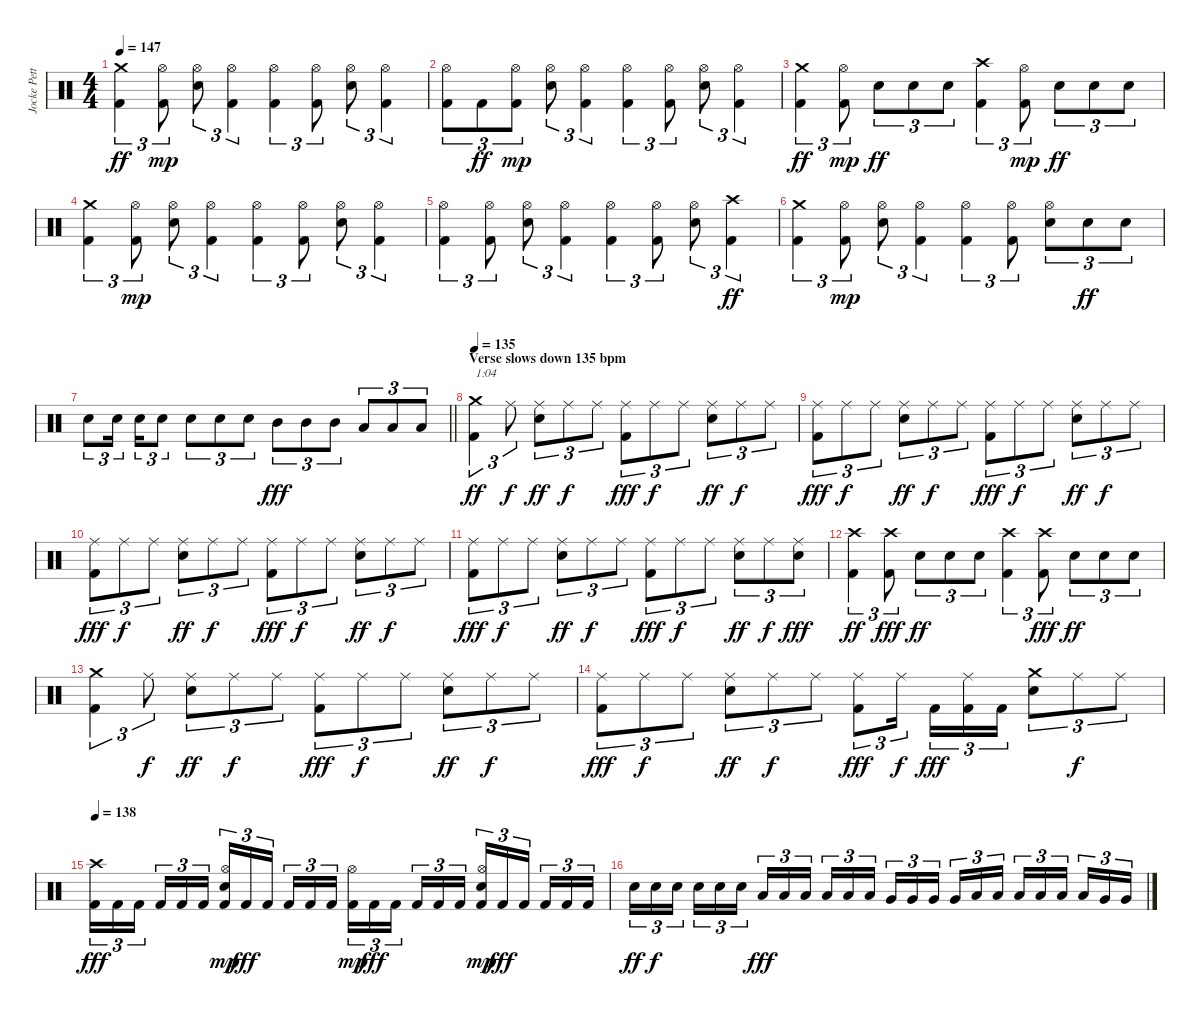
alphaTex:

\track ("Jocke Pettersson" "Jocke Pett") {instrument percussion}
\staff {score}
\articulation defaults
\ts (4 4)
\tempo 147
\clef neutral
\ks c
("Kick (hit) 2" "Crash medium (hit)").4{tu (3 2) dy ff} ("Kick (hit) 2" "Hi-Hat (open)").8{tu (3 2) dy mp} ("Electric Snare (hit)" "Hi-Hat (open)").8{tu (3 2)} ("Kick (hit) 2" "Hi-Hat (open)").4{tu (3 2)} ("Kick (hit) 2" "Hi-Hat (open)").4{tu (3 2)} ("Kick (hit) 2" "Hi-Hat (open)").8{tu (3 2)} ("Electric Snare (hit)" "Hi-Hat (open)").8{tu (3 2)} ("Kick (hit) 2" "Hi-Hat (open)").4{tu (3 2)} |
("Kick (hit) 2" "Hi-Hat (open)").8{tu (3 2)} "Kick (hit) 2".8{tu (3 2) dy ff} ("Kick (hit) 2" "Hi-Hat (open)").8{tu (3 2) dy mp} ("Electric Snare (hit)" "Hi-Hat (open)").8{tu (3 2)} ("Kick (hit) 2" "Hi-Hat (open)").4{tu (3 2)} ("Kick (hit) 2" "Hi-Hat (open)").4{tu (3 2)} ("Kick (hit) 2" "Hi-Hat (open)").8{tu (3 2)} ("Electric Snare (hit)" "Hi-Hat (open)").8{tu (3 2)} ("Kick (hit) 2" "Hi-Hat (open)").4{tu (3 2)} |
("Kick (hit) 2" "Crash medium (hit)").4{tu (3 2) dy ff} ("Kick (hit) 2" "Hi-Hat (open)").8{tu (3 2) dy mp} "Electric Snare (hit)".8{tu (3 2) dy ff} "Electric Snare (hit)".8{tu (3 2)} "Electric Snare (hit)".8{tu (3 2)} ("Kick (hit) 2" "Crash high (hit)").4{tu (3 2)} ("Kick (hit) 2" "Hi-Hat (open)").8{tu (3 2) dy mp} "Electric Snare (hit)".8{tu (3 2) dy ff} "Electric Snare (hit)".8{tu (3 2)} "Electric Snare (hit)".8{tu (3 2)} |
("Kick (hit) 2" "Crash medium (hit)").4{tu (3 2)} ("Kick (hit) 2" "Hi-Hat (open)").8{tu (3 2) dy mp} ("Electric Snare (hit)" "Hi-Hat (open)").8{tu (3 2)} ("Kick (hit) 2" "Hi-Hat (open)").4{tu (3 2)} ("Kick (hit) 2" "Hi-Hat (open)").4{tu (3 2)} ("Kick (hit) 2" "Hi-Hat (open)").8{tu (3 2)} ("Electric Snare (hit)" "Hi-Hat (open)").8{tu (3 2)} ("Kick (hit) 2" "Hi-Hat (open)").4{tu (3 2)} |
("Kick (hit) 2" "Hi-Hat (open)").4{tu (3 2)} ("Kick (hit) 2" "Hi-Hat (open)").8{tu (3 2)} ("Electric Snare (hit)" "Hi-Hat (open)").8{tu (3 2)} ("Kick (hit) 2" "Hi-Hat (open)").4{tu (3 2)} ("Kick (hit) 2" "Hi-Hat (open)").4{tu (3 2)} ("Kick (hit) 2" "Hi-Hat (open)").8{tu (3 2)} ("Electric Snare (hit)" "Hi-Hat (open)").8{tu (3 2)} ("Kick (hit) 2" "Crash high (hit)").4{tu (3 2) dy ff} |
("Kick (hit) 2" "Crash medium (hit)").4{tu (3 2)} ("Kick (hit) 2" "Hi-Hat (open)").8{tu (3 2) dy mp} ("Electric Snare (hit)" "Hi-Hat (open)").8{tu (3 2)} ("Kick (hit) 2" "Hi-Hat (open)").4{tu (3 2)} ("Kick (hit) 2" "Hi-Hat (open)").4{tu (3 2)} ("Kick (hit) 2" "Hi-Hat (open)").8{tu (3 2)} ("Electric Snare (hit)" "Hi-Hat (open)").8{tu (3 2)} "Electric Snare (hit)".8{tu (3 2) dy ff} "Electric Snare (hit)".8{tu (3 2)} |
\barLineRight lightlight "Electric Snare (hit)".8{tu (3 2)} "Electric Snare (hit)".16{tu (3 2) beam splitsecondary} "Electric Snare (hit)".16{tu (3 2)} "Electric Snare (hit)".8{tu (3 2)} "Electric Snare (hit)".8{tu (3 2)} "Electric Snare (hit)".8{tu (3 2)} "Electric Snare (hit)".8{tu (3 2)} "Mid Tom (hit)".8{tu (3 2) dy fff} "Mid Tom (hit)".8{tu (3 2)} "Mid Tom (hit)".8{tu (3 2)} "Low Tom (hit)".8{tu (3 2)} "Low Tom (hit)".8{tu (3 2)} "Low Tom (hit)".8{tu (3 2)}
|
\section ("" "Verse slows down 135 bpm")
\tempo 135
("Kick (hit) 2" "Crash medium (hit)").4{tu (3 2) txt "1:04" dy ff} "Ride (middle)".8{tu (3 2) dy f} ("Electric Snare (hit)" "Ride (middle)").8{tu (3 2) dy ff} "Ride (middle)".8{tu (3 2) dy f} "Ride (middle)".8{tu (3 2)} ("Kick (hit) 2" "Ride (middle)").8{tu (3 2) dy fff} "Ride (middle)".8{tu (3 2) dy f} "Ride (middle)".8{tu (3 2)} ("Electric Snare (hit)" "Ride (middle)").8{tu (3 2) dy ff} "Ride (middle)".8{tu (3 2) dy f} "Ride (middle)".8{tu (3 2)} |
("Kick (hit) 2" "Ride (middle)").8{tu (3 2) dy fff} "Ride (middle)".8{tu (3 2) dy f} "Ride (middle)".8{tu (3 2)} ("Electric Snare (hit)" "Ride (middle)").8{tu (3 2) dy ff} "Ride (middle)".8{tu (3 2) dy f} "Ride (middle)".8{tu (3 2)} ("Kick (hit) 2" "Ride (middle)").8{tu (3 2) dy fff} "Ride (middle)".8{tu (3 2) dy f} "Ride (middle)".8{tu (3 2)} ("Electric Snare (hit)" "Ride (middle)").8{tu (3 2) dy ff} "Ride (middle)".8{tu (3 2) dy f} "Ride (middle)".8{tu (3 2)} |
("Kick (hit) 2" "Ride (middle)").8{tu (3 2) dy fff} "Ride (middle)".8{tu (3 2) dy f} "Ride (middle)".8{tu (3 2)} ("Electric Snare (hit)" "Ride (middle)").8{tu (3 2) dy ff} "Ride (middle)".8{tu (3 2) dy f} "Ride (middle)".8{tu (3 2)} ("Kick (hit) 2" "Ride (middle)").8{tu (3 2) dy fff} "Ride (middle)".8{tu (3 2) dy f} "Ride (middle)".8{tu (3 2)} ("Electric Snare (hit)" "Ride (middle)").8{tu (3 2) dy ff} "Ride (middle)".8{tu (3 2) dy f} "Ride (middle)".8{tu (3 2)} |
("Kick (hit) 2" "Ride (middle)").8{tu (3 2) dy fff} "Ride (middle)".8{tu (3 2) dy f} "Ride (middle)".8{tu (3 2)} ("Electric Snare (hit)" "Ride (middle)").8{tu (3 2) dy ff} "Ride (middle)".8{tu (3 2) dy f} "Ride (middle)".8{tu (3 2)} ("Kick (hit) 2" "Ride (middle)").8{tu (3 2) dy fff} "Ride (middle)".8{tu (3 2) dy f} "Ride (middle)".8{tu (3 2)} ("Electric Snare (hit)" "Ride (middle)").8{tu (3 2) dy ff} "Ride (middle)".8{tu (3 2) dy f} ("Electric Snare (hit)" "Ride (middle)").8{tu (3 2) dy fff} |
("Kick (hit) 2" "Crash high (hit)").4{tu (3 2) dy ff} ("Kick (hit) 2" "Crash high (hit)").8{tu (3 2) dy fff} "Electric Snare (hit)".8{tu (3 2) dy ff} "Electric Snare (hit)".8{tu (3 2)} "Electric Snare (hit)".8{tu (3 2)} ("Kick (hit) 2" "Crash high (hit)").4{tu (3 2)} ("Kick (hit) 2" "Crash high (hit)").8{tu (3 2) dy fff} "Electric Snare (hit)".8{tu (3 2) dy ff} "Electric Snare (hit)".8{tu (3 2)} "Electric Snare (hit)".8{tu (3 2)} |
("Kick (hit) 2" "Crash medium (hit)").4{tu (3 2)} "Ride (middle)".8{tu (3 2) dy f} ("Electric Snare (hit)" "Ride (middle)").8{tu (3 2) dy ff} "Ride (middle)".8{tu (3 2) dy f} "Ride (middle)".8{tu (3 2)} ("Kick (hit) 2" "Ride (middle)").8{tu (3 2) dy fff} "Ride (middle)".8{tu (3 2) dy f} "Ride (middle)".8{tu (3 2)} ("Electric Snare (hit)" "Ride (middle)").8{tu (3 2) dy ff} "Ride (middle)".8{tu (3 2) dy f} "Ride (middle)".8{tu (3 2)} |
("Kick (hit) 2" "Ride (middle)").8{tu (3 2) dy fff} "Ride (middle)".8{tu (3 2) dy f} "Ride (middle)".8{tu (3 2)} ("Electric Snare (hit)" "Ride (middle)").8{tu (3 2) dy ff} "Ride (middle)".8{tu (3 2) dy f} "Ride (middle)".8{tu (3 2)} ("Kick (hit) 2" "Ride (middle)").8{tu (3 2) dy fff} "Ride (middle)".16{tu (3 2) dy f beam splitsecondary} "Kick (hit) 2".16{tu (3 2) dy fff} ("Kick (hit) 2" "Ride (middle)").16{tu (3 2)} "Kick (hit) 2".16{tu (3 2)} ("Electric Snare (hit)" "Crash medium (hit)").8{tu (3 2)} "Ride (middle)".8{tu (3 2) dy f} "Ride (middle)".8{tu (3 2)} |
\tempo 138
("Kick (hit) 2" "Crash high (hit)").16{tu (3 2) dy fff} "Kick (hit) 2".16{tu (3 2)} "Kick (hit) 2".16{tu (3 2) beam splitsecondary} "Kick (hit) 2".16{tu (3 2)} "Kick (hit) 2".16{tu (3 2)} "Kick (hit) 2".16{tu (3 2)} ("Kick (hit) 2" "Electric Snare (hit)" "Hi-Hat (open)").16{tu (3 2) dy mp} "Kick (hit) 2".16{tu (3 2) dy fff} "Kick (hit) 2".16{tu (3 2) beam splitsecondary} "Kick (hit) 2".16{tu (3 2)} "Kick (hit) 2".16{tu (3 2)} "Kick (hit) 2".16{tu (3 2)} ("Kick (hit) 2" "Hi-Hat (open)").16{tu (3 2) dy mp} "Kick (hit) 2".16{tu (3 2) dy fff} "Kick (hit) 2".16{tu (3 2) beam splitsecondary} "Kick (hit) 2".16{tu (3 2)} "Kick (hit) 2".16{tu (3 2)} "Kick (hit) 2".16{tu (3 2)} ("Kick (hit) 2" "Electric Snare (hit)" "Hi-Hat (open)").16{tu (3 2) dy mp} "Kick (hit) 2".16{tu (3 2) dy fff} "Kick (hit) 2".16{tu (3 2) beam splitsecondary} "Kick (hit) 2".16{tu (3 2)} "Kick (hit) 2".16{tu (3 2)} "Kick (hit) 2".16{tu (3 2)} |
"Electric Snare (hit)".16{tu (3 2) dy ff} "Electric Snare (hit)".16{tu (3 2) dy f} "Electric Snare (hit)".16{tu (3 2) beam splitsecondary} "Electric Snare (hit)".16{tu (3 2)} "Electric Snare (hit)".16{tu (3 2)} "Electric Snare (hit)".16{tu (3 2)} "Low Tom (hit)".16{tu (3 2) dy fff} "Low Tom (hit)".16{tu (3 2)} "Low Tom (hit)".16{tu (3 2) beam splitsecondary} "Low Tom (hit)".16{tu (3 2)} "Low Tom (hit)".16{tu (3 2)} "Low Tom (hit)".16{tu (3 2)} "Very Low Tom (hit)".16{tu (3 2)} "Very Low Tom (hit)".16{tu (3 2)} "Very Low Tom (hit)".16{tu (3 2) beam splitsecondary} "Very Low Tom (hit)".16{tu (3 2)} "Low Tom (hit)".16{tu (3 2)} "Low Tom (hit)".16{tu (3 2)} "Low Tom (hit)".16{tu (3 2)} "Low Tom (hit)".16{tu (3 2)} "Low Tom (hit)".16{tu (3 2) beam splitsecondary} "Low Tom (hit)".16{tu (3 2)} "Very Low Tom (hit)".16{tu (3 2)} "Very Low Tom (hit)".16{tu (3 2)}
